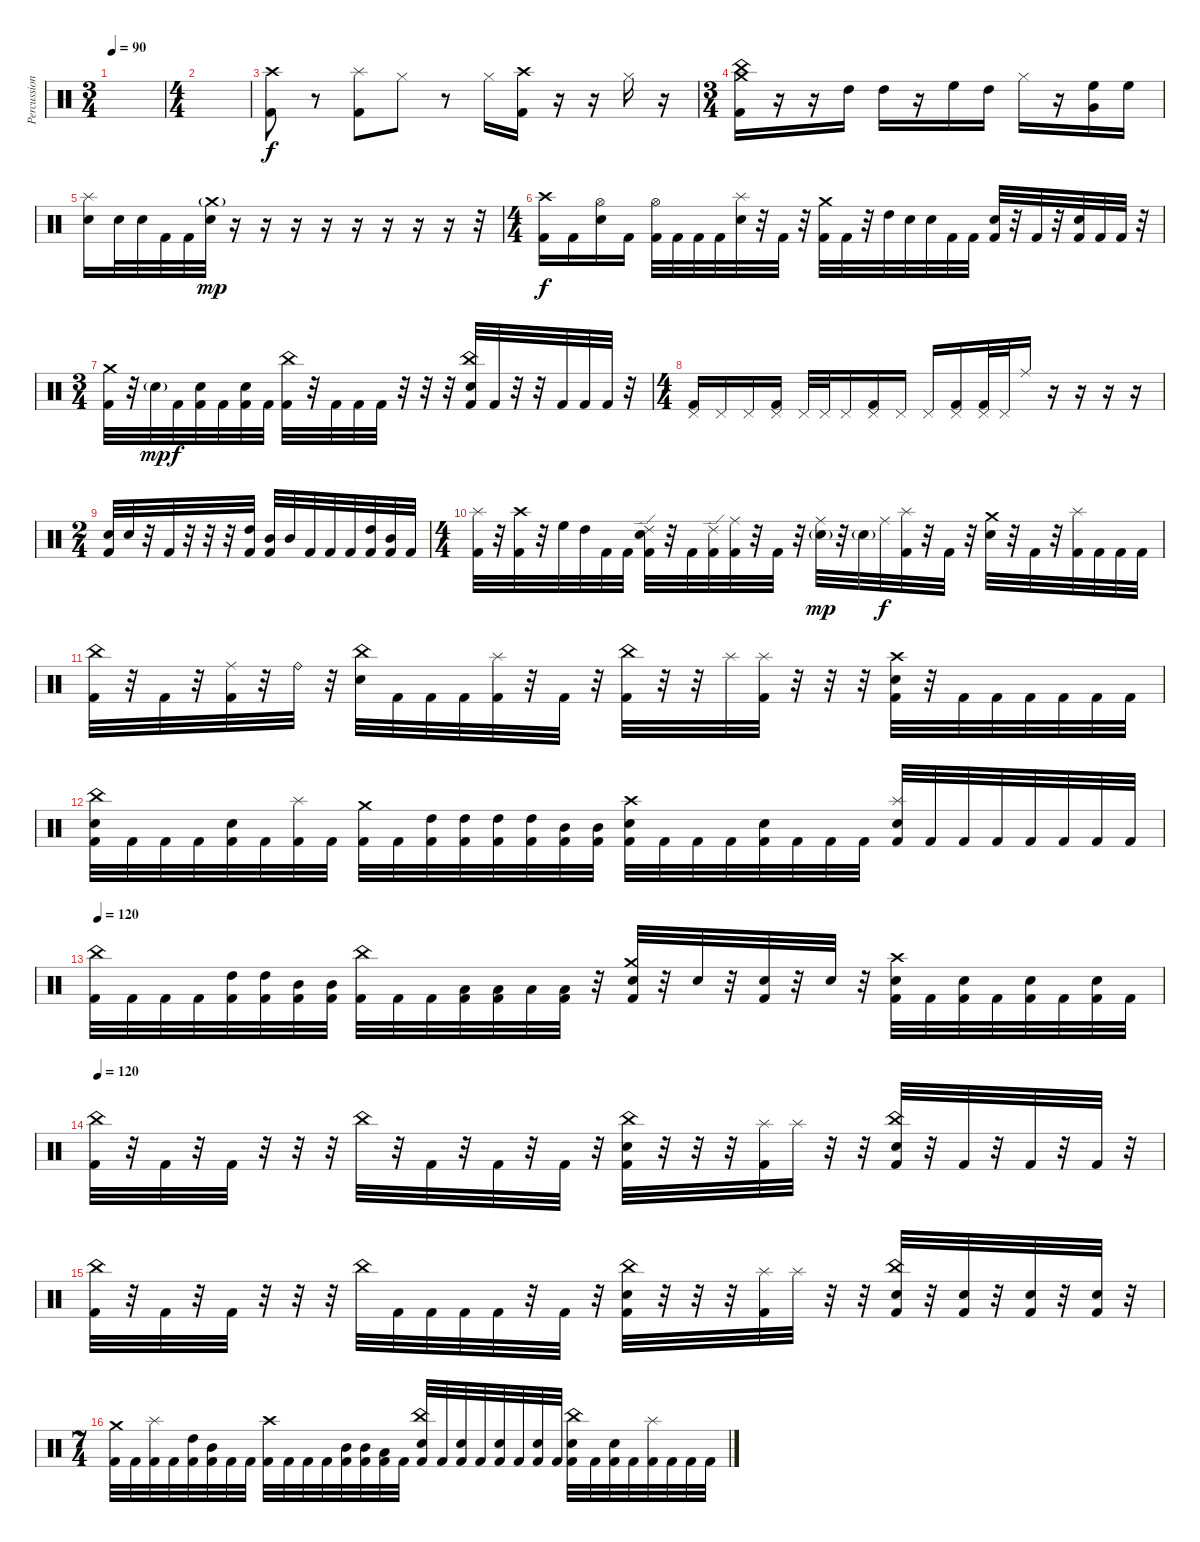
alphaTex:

\track ("Percussion" "Percussion") {instrument percussion}
\staff {score}
\articulation defaults
\ts (3 4)
\tempo 90
\clef neutral
\ks c
|
\ts (4 4)
|
("Crash high (hit)" "Kick (hit) 2").8 r.8 ("Splash (hit)" "Kick (hit) 2").8 "Hi-Hat (closed)".8 r.8 "Hi-Hat (closed)".16 ("Crash high (hit)" "Kick (hit) 2").16 r.16 r.16 "Hi-Hat (closed)".16 r.16 |
\ts (3 4)
("Crash medium (hit)" "China (hit)" "Kick (hit) 2").16 r.16 r.16 "High Tom (hit)".16 "High Tom (hit)".16 r.16 "High Floor Tom (hit)".16 "High Tom (hit)".16 "Hi-Hat (closed)".16 r.16 ("Very Low Tom (hit)" "High Floor Tom (hit)").16 "High Floor Tom (hit)".16 |
("Splash (hit)" "Electric Snare (hit)").16 "Electric Snare (hit)".32 "Electric Snare (hit)".32 "Kick (hit) 2".32 "Kick (hit) 2".32 ("Crash medium (hit)"{g} "Electric Snare (hit)").32{dy mp} r.16 r.16 r.16 r.16 r.16 r.16 r.16 r.16 r.32 |
\ts (4 4)
("Crash high (hit)" "Kick (hit) 2").16{dy f} "Kick (hit) 2".16 ("Hi-Hat (open)" "Electric Snare (hit)").16 "Kick (hit) 2".16 ("Hi-Hat (open)" "Kick (hit) 2").32 "Kick (hit) 2".32 "Kick (hit) 2".32 "Kick (hit) 2".32 ("Splash (hit)" "Electric Snare (hit)").32 r.32 "Kick (hit) 2".32 r.32 ("Crash medium (hit)" "Kick (hit) 2").32 "Kick (hit) 2".32 r.32 "High Tom (hit)".32 "Electric Snare (hit)".32 "Electric Snare (hit)".32 "Kick (hit) 2".32 "Kick (hit) 2".32 ("Electric Snare (hit)" "Kick (hit) 2").32 r.32 "Kick (hit) 2".32 r.32 ("Electric Snare (hit)" "Kick (hit) 2").32 "Kick (hit) 2".32 "Kick (hit) 2".32 r.32 |
\ts (3 4)
("Crash medium (hit)" "Kick (hit) 2").32 r.32 "Electric Snare (hit)"{g}.32{dy mp} "Kick (hit) 2".32{dy f} ("Electric Snare (hit)" "Kick (hit) 2").32 "Kick (hit) 2".32 ("Electric Snare (hit)" "Kick (hit) 2").32 "Kick (hit) 2".32 ("China (hit)" "Kick (hit) 2").32 r.32 "Kick (hit) 2".32 "Kick (hit) 2".32 "Kick (hit) 2".32 r.32 r.32 r.32 ("China (hit)" "Electric Snare (hit)" "Kick (hit) 2").32 "Kick (hit) 2".32 r.32 r.32 "Kick (hit) 2".32 "Kick (hit) 2".32 "Kick (hit) 2".32 r.32 |
\ts (4 4)
("Pedal Hi-Hat (hit)" "Kick (hit) 2").16 "Pedal Hi-Hat (hit)".16 "Pedal Hi-Hat (hit)".16 ("Pedal Hi-Hat (hit)" "Kick (hit) 2").16 "Pedal Hi-Hat (hit)".32 "Pedal Hi-Hat (hit)".32 "Pedal Hi-Hat (hit)".16 ("Pedal Hi-Hat (hit)" "Kick (hit) 2").16 "Pedal Hi-Hat (hit)".16 "Pedal Hi-Hat (hit)".16 ("Pedal Hi-Hat (hit)" "Kick (hit) 2").16 ("Pedal Hi-Hat (hit)" "Kick (hit) 2").32 "Pedal Hi-Hat (hit)".32 "Ride (middle)".16 r.16 r.16 r.16 r.16 |
\ts (2 4)
("Electric Snare (hit)" "Kick (hit) 2").32 "Electric Snare (hit)".32 r.32 "Kick (hit) 2".32 r.32 r.32 r.32 ("High Tom (hit)" "Kick (hit) 2").32 ("Mid Tom (hit)" "Kick (hit) 2").32 "Mid Tom (hit)".32 "Kick (hit) 2".32 "Kick (hit) 2".32 "Kick (hit) 2".32 ("High Tom (hit)" "Kick (hit) 2").32 ("Mid Tom (hit)" "Kick (hit) 2").32 "Kick (hit) 2".32 |
\ts (4 4)
("Splash (hit)" "Kick (hit) 2").32 r.32 ("Crash high (hit)" "Kick (hit) 2").32 r.32 "High Floor Tom (hit)".32 "High Tom (hit)".32 "Kick (hit) 2".32 "Kick (hit) 2".32 ("Ride (edge) 2" "Electric Snare (hit)" "Kick (hit) 2").32 r.32 "Kick (hit) 2".32 ("Ride (edge) 2" "Kick (hit) 2").32 ("Ride (middle)" "Kick (hit) 2").32 r.32 "Kick (hit) 2".32 r.32 ("Ride (middle)" "Electric Snare (hit)"{g}).32{dy mp} r.32 "Electric Snare (hit)"{g}.32 "Ride (middle)".32{dy f} ("Splash (hit)" "Kick (hit) 2").32 r.32 "Kick (hit) 2".32 r.32 ("Crash medium (hit)" "Electric Snare (hit)").32 r.32 "Kick (hit) 2".32 r.32 ("Splash (hit)" "Kick (hit) 2").32 "Kick (hit) 2".32 "Kick (hit) 2".32 "Kick (hit) 2".32 |
("China (hit)" "Kick (hit) 2").32 r.32 "Kick (hit) 2".32 r.32 ("Ride (middle)" "Kick (hit) 2").32 r.32 "Ride (bell)".32 r.32 ("China (hit)" "Electric Snare (hit)").32 "Kick (hit) 2".32 "Kick (hit) 2".32 "Kick (hit) 2".32 ("Splash (hit)" "Kick (hit) 2").32 r.32 "Kick (hit) 2".32 r.32 ("China (hit)" "Kick (hit) 2").32 r.32 r.32 "Splash (hit)".32 ("Splash (hit)" "Kick (hit) 2").32 r.32 r.32 r.32 ("Crash high (hit)" "Electric Snare (hit)" "Kick (hit) 2").32 r.32 "Kick (hit) 2".32 "Kick (hit) 2".32 "Kick (hit) 2".32 "Kick (hit) 2".32 "Kick (hit) 2".32 "Kick (hit) 2".32 |
("China (hit)" "Electric Snare (hit)" "Kick (hit) 2").32 "Kick (hit) 2".32 "Kick (hit) 2".32 "Kick (hit) 2".32 ("Electric Snare (hit)" "Kick (hit) 2").32 "Kick (hit) 2".32 ("Splash (hit)" "Kick (hit) 2").32 "Kick (hit) 2".32 ("Crash medium (hit)" "Kick (hit) 2").32 "Kick (hit) 2".32 ("High Tom (hit)" "Kick (hit) 2").32 ("High Tom (hit)" "Kick (hit) 2").32 ("High Tom (hit)" "Kick (hit) 2").32 ("High Tom (hit)" "Kick (hit) 2").32 ("Mid Tom (hit)" "Kick (hit) 2").32 ("Mid Tom (hit)" "Kick (hit) 2").32 ("Crash high (hit)" "Electric Snare (hit)" "Kick (hit) 2").32 "Kick (hit) 2".32 "Kick (hit) 2".32 "Kick (hit) 2".32 ("Electric Snare (hit)" "Kick (hit) 2").32 "Kick (hit) 2".32 "Kick (hit) 2".32 "Kick (hit) 2".32 ("Splash (hit)" "Electric Snare (hit)" "Kick (hit) 2").32 "Kick (hit) 2".32 "Kick (hit) 2".32 "Kick (hit) 2".32 "Kick (hit) 2".32 "Kick (hit) 2".32 "Kick (hit) 2".32 "Kick (hit) 2".32 |
\tempo 120
("China (hit)" "Kick (hit) 2").32 "Kick (hit) 2".32 "Kick (hit) 2".32 "Kick (hit) 2".32 ("High Tom (hit)" "Kick (hit) 2").32 ("High Tom (hit)" "Kick (hit) 2").32 ("Mid Tom (hit)" "Kick (hit) 2").32 ("Mid Tom (hit)" "Kick (hit) 2").32 ("China (hit)" "Kick (hit) 2").32 "Kick (hit) 2".32 "Kick (hit) 2".32 ("Low Tom (hit)" "Kick (hit) 2").32 ("Low Tom (hit)" "Kick (hit) 2").32 "Low Tom (hit)".32 ("Low Tom (hit)" "Kick (hit) 2").32 r.32 ("Crash medium (hit)" "Electric Snare (hit)" "Kick (hit) 2").32 r.32 "Electric Snare (hit)".32 r.32 ("Electric Snare (hit)" "Kick (hit) 2").32 r.32 "Electric Snare (hit)".32 r.32 ("Crash high (hit)" "Electric Snare (hit)" "Kick (hit) 2").32 "Kick (hit) 2".32 ("Electric Snare (hit)" "Kick (hit) 2").32 "Kick (hit) 2".32 ("Electric Snare (hit)" "Kick (hit) 2").32 "Kick (hit) 2".32 ("Electric Snare (hit)" "Kick (hit) 2").32 "Kick (hit) 2".32 |
\tempo 120
("China (hit)" "Kick (hit) 2").32 r.32 "Kick (hit) 2".32 r.32 "Kick (hit) 2".32 r.32 r.32 r.32 "China (hit)".32 r.32 "Kick (hit) 2".32 r.32 "Kick (hit) 2".32 r.32 "Kick (hit) 2".32 r.32 ("China (hit)" "Electric Snare (hit)" "Kick (hit) 2").32 r.32 r.32 r.32 ("Splash (hit)" "Kick (hit) 2").32 "Splash (hit)".32 r.32 r.32 ("China (hit)" "Electric Snare (hit)" "Kick (hit) 2").32 r.32 "Kick (hit) 2".32 r.32 "Kick (hit) 2".32 r.32 "Kick (hit) 2".32 r.32 |
("China (hit)" "Kick (hit) 2").32 r.32 "Kick (hit) 2".32 r.32 "Kick (hit) 2".32 r.32 r.32 r.32 "China (hit)".32 "Kick (hit) 2".32 "Kick (hit) 2".32 "Kick (hit) 2".32 "Kick (hit) 2".32 r.32 "Kick (hit) 2".32 r.32 ("China (hit)" "Electric Snare (hit)" "Kick (hit) 2").32 r.32 r.32 r.32 ("Splash (hit)" "Kick (hit) 2").32 "Splash (hit)".32 r.32 r.32 ("China (hit)" "Electric Snare (hit)" "Kick (hit) 2").32 r.32 ("Electric Snare (hit)" "Kick (hit) 2").32 r.32 ("Electric Snare (hit)" "Kick (hit) 2").32 r.32 ("Electric Snare (hit)" "Kick (hit) 2").32 r.32 |
\ts (7 4)
("Crash medium (hit)" "Kick (hit) 2").32 "Kick (hit) 2".32 ("Splash (hit)" "Kick (hit) 2").32 "Kick (hit) 2".32 ("High Tom (hit)" "Kick (hit) 2").32 ("Mid Tom (hit)" "Kick (hit) 2").32 "Kick (hit) 2".32 "Kick (hit) 2".32 ("Crash high (hit)" "Kick (hit) 2").32 "Kick (hit) 2".32 "Kick (hit) 2".32 "Kick (hit) 2".32 ("Mid Tom (hit)" "Kick (hit) 2").32 ("Mid Tom (hit)" "Kick (hit) 2").32 ("Low Tom (hit)" "Kick (hit) 2").32 "Kick (hit) 2".32 ("China (hit)" "Electric Snare (hit)" "Kick (hit) 2").32 "Kick (hit) 2".32 ("Electric Snare (hit)" "Kick (hit) 2").32 "Kick (hit) 2".32 ("Electric Snare (hit)" "Kick (hit) 2").32 "Kick (hit) 2".32 ("Electric Snare (hit)" "Kick (hit) 2").32 "Kick (hit) 2".32 ("China (hit)" "Electric Snare (hit)" "Kick (hit) 2").32 "Kick (hit) 2".32 ("Electric Snare (hit)" "Kick (hit) 2").32 "Kick (hit) 2".32 ("Splash (hit)" "Kick (hit) 2").32 "Kick (hit) 2".32 "Kick (hit) 2".32 "Kick (hit) 2".32
